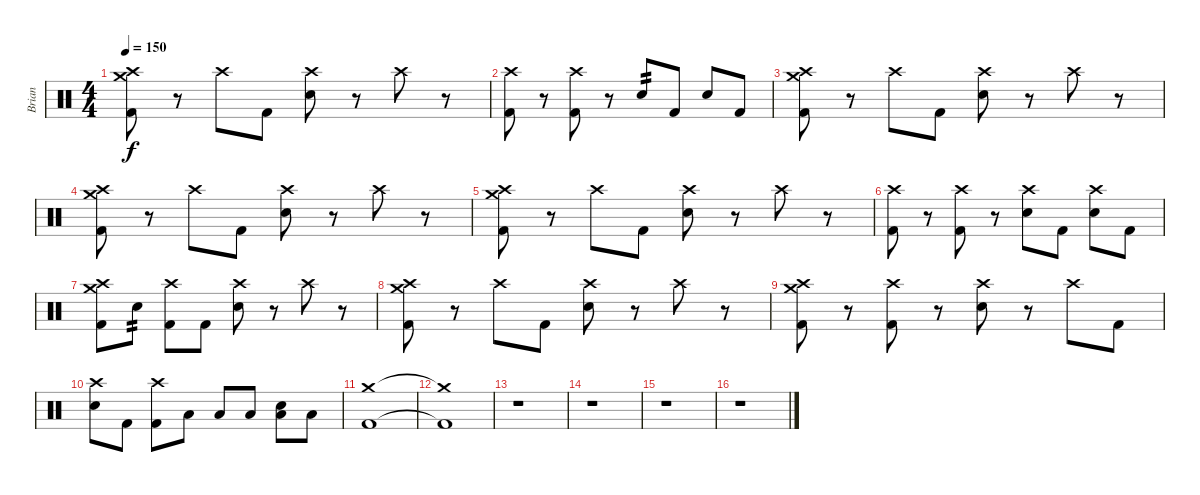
\track ("Brian" "Brian") {instrument percussion}
\staff {score}
\articulation defaults
\ts (4 4)
\tempo 150
\clef neutral
\ks c
("Crash high (hit)" "Crash medium (hit)" "Kick (hit) 2").8{dy f} r.8 "Crash high (hit)".8 "Kick (hit) 2".8 ("Crash high (hit)" "Snare (hit) 2").8 r.8 "Crash high (hit)".8 r.8 |
("Crash high (hit)" "Kick (hit) 2").8 r.8 ("Crash high (hit)" "Kick (hit) 2").8 r.8 "Snare (hit) 2".8{tp 2} "Kick (hit) 2".8 "Snare (hit) 2".8 "Kick (hit) 2".8 |
("Crash high (hit)" "Crash medium (hit)" "Kick (hit) 2").8 r.8 "Crash high (hit)".8 "Kick (hit) 2".8 ("Crash high (hit)" "Snare (hit) 2").8 r.8 "Crash high (hit)".8 r.8 |
("Crash high (hit)" "Crash medium (hit)" "Kick (hit) 2").8 r.8 "Crash high (hit)".8 "Kick (hit) 2".8 ("Crash high (hit)" "Snare (hit) 2").8 r.8 "Crash high (hit)".8 r.8 |
("Crash high (hit)" "Crash medium (hit)" "Kick (hit) 2").8 r.8 "Crash high (hit)".8 "Kick (hit) 2".8 ("Crash high (hit)" "Snare (hit) 2").8 r.8 "Crash high (hit)".8 r.8 |
("Crash high (hit)" "Kick (hit) 2").8 r.8 ("Crash high (hit)" "Kick (hit) 2").8 r.8 ("Crash high (hit)" "Snare (hit) 2").8 "Kick (hit) 2".8 ("Crash high (hit)" "Snare (hit) 2").8 "Kick (hit) 2".8 |
("Crash high (hit)" "Crash medium (hit)" "Kick (hit) 2").8 "Snare (hit) 2".8{tp 2} ("Crash high (hit)" "Kick (hit) 2").8 "Kick (hit) 2".8 ("Crash high (hit)" "Snare (hit) 2").8 r.8 "Crash high (hit)".8 r.8 |
("Crash high (hit)" "Crash medium (hit)" "Kick (hit) 2").8 r.8 "Crash high (hit)".8 "Kick (hit) 2".8 ("Crash high (hit)" "Snare (hit) 2").8 r.8 "Crash high (hit)".8 r.8 |
("Crash high (hit)" "Crash medium (hit)" "Kick (hit) 2").8 r.8 ("Crash high (hit)" "Kick (hit) 2").8 r.8 ("Crash high (hit)" "Snare (hit) 2").8 r.8 "Crash high (hit)".8 "Kick (hit) 2".8 |
("Crash high (hit)" "Snare (hit) 2").8 "Kick (hit) 2".8 ("Crash high (hit)" "Kick (hit) 2").8 "Low Tom (hit)".8 "Low Tom (hit)".8 "Low Tom (hit)".8 ("Snare (hit) 2" "Low Tom (hit)").8 "Low Tom (hit)".8 |
("Crash medium (hit)" "Kick (hit) 2").1 |
("Crash medium (hit)"{t} "Kick (hit) 2"{t}).1 |
r.1 |
r.1 |
r.1 |
r.1
